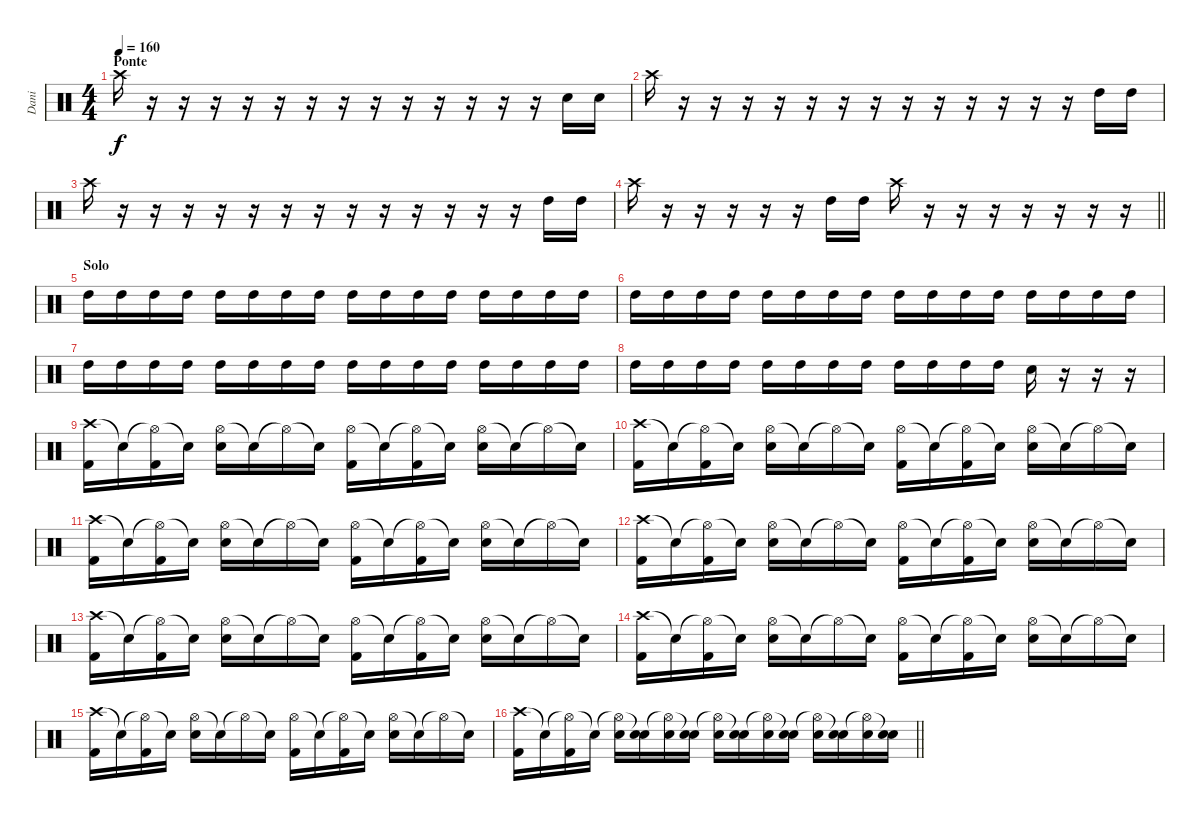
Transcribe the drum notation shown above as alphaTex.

\track ("Dani " "Dani ") {instrument percussion}
\staff {score}
\articulation defaults
\ts (4 4)
\section ("" "Ponte")
\tempo 160
\clef neutral
\ks c "Crash high (hit)".16{dy f}
r.16 r.16 r.16 r.16 r.16 r.16 r.16 r.16 r.16 r.16 r.16 r.16 r.16 "Electric Snare (hit)".16 "Electric Snare (hit)".16 |
"Crash high (hit)".16 r.16 r.16 r.16 r.16 r.16 r.16 r.16 r.16 r.16 r.16 r.16 r.16 r.16 "High Tom (hit)".16 "High Tom (hit)".16 |
"Crash high (hit)".16 r.16 r.16 r.16 r.16 r.16 r.16 r.16 r.16 r.16 r.16 r.16 r.16 r.16 "High Tom (hit)".16 "High Tom (hit)".16 |
\barLineRight lightlight "Crash high (hit)".16
r.16 r.16 r.16 r.16 r.16 "High Tom (hit)".16 "High Tom (hit)".16 "Crash high (hit)".16 r.16 r.16 r.16 r.16 r.16 r.16 r.16 |
\section ("" "Solo")
"High Tom (hit)".16 "High Tom (hit)".16 "High Tom (hit)".16 "High Tom (hit)".16 "High Tom (hit)".16 "High Tom (hit)".16 "High Tom (hit)".16 "High Tom (hit)".16 "High Tom (hit)".16 "High Tom (hit)".16 "High Tom (hit)".16 "High Tom (hit)".16 "High Tom (hit)".16 "High Tom (hit)".16 "High Tom (hit)".16 "High Tom (hit)".16 |
"High Tom (hit)".16 "High Tom (hit)".16 "High Tom (hit)".16 "High Tom (hit)".16 "High Tom (hit)".16 "High Tom (hit)".16 "High Tom (hit)".16 "High Tom (hit)".16 "High Tom (hit)".16 "High Tom (hit)".16 "High Tom (hit)".16 "High Tom (hit)".16 "High Tom (hit)".16 "High Tom (hit)".16 "High Tom (hit)".16 "High Tom (hit)".16 |
"High Tom (hit)".16 "High Tom (hit)".16 "High Tom (hit)".16 "High Tom (hit)".16 "High Tom (hit)".16 "High Tom (hit)".16 "High Tom (hit)".16 "High Tom (hit)".16 "High Tom (hit)".16 "High Tom (hit)".16 "High Tom (hit)".16 "High Tom (hit)".16 "High Tom (hit)".16 "High Tom (hit)".16 "High Tom (hit)".16 "High Tom (hit)".16 |
"High Tom (hit)".16 "High Tom (hit)".16 "High Tom (hit)".16 "High Tom (hit)".16 "High Tom (hit)".16 "High Tom (hit)".16 "High Tom (hit)".16 "High Tom (hit)".16 "High Tom (hit)".16 "High Tom (hit)".16 "High Tom (hit)".16 "High Tom (hit)".16 "Electric Snare (hit)".16 r.16 r.16 r.16 |
("Crash high (hit)" "Kick (hit) 2").16 "Snare (hit)"{t}.16 ("Hi-Hat (open)"{t} "Kick (hit) 2").16 "Snare (hit)"{t}.16 ("Hi-Hat (open)" "Electric Snare (hit)").16 "Snare (hit)"{t}.16 "Hi-Hat (open)"{t}.16 "Snare (hit)"{t}.16 ("Hi-Hat (open)" "Kick (hit) 2").16 "Snare (hit)"{t}.16 ("Hi-Hat (open)"{t} "Kick (hit) 2").16 "Snare (hit)"{t}.16 ("Hi-Hat (open)" "Electric Snare (hit)").16 "Snare (hit)"{t}.16 "Hi-Hat (open)"{t}.16 "Snare (hit)"{t}.16 |
("Crash high (hit)" "Kick (hit) 2").16 "Snare (hit)"{t}.16 ("Hi-Hat (open)"{t} "Kick (hit) 2").16 "Snare (hit)"{t}.16 ("Hi-Hat (open)" "Electric Snare (hit)").16 "Snare (hit)"{t}.16 "Hi-Hat (open)"{t}.16 "Snare (hit)"{t}.16 ("Hi-Hat (open)" "Kick (hit) 2").16 "Snare (hit)"{t}.16 ("Hi-Hat (open)"{t} "Kick (hit) 2").16 "Snare (hit)"{t}.16 ("Hi-Hat (open)" "Electric Snare (hit)").16 "Snare (hit)"{t}.16 "Hi-Hat (open)"{t}.16 "Snare (hit)"{t}.16 |
("Crash high (hit)" "Kick (hit) 2").16 "Snare (hit)"{t}.16 ("Hi-Hat (open)"{t} "Kick (hit) 2").16 "Snare (hit)"{t}.16 ("Hi-Hat (open)" "Electric Snare (hit)").16 "Snare (hit)"{t}.16 "Hi-Hat (open)"{t}.16 "Snare (hit)"{t}.16 ("Hi-Hat (open)" "Kick (hit) 2").16 "Snare (hit)"{t}.16 ("Hi-Hat (open)"{t} "Kick (hit) 2").16 "Snare (hit)"{t}.16 ("Hi-Hat (open)" "Electric Snare (hit)").16 "Snare (hit)"{t}.16 "Hi-Hat (open)"{t}.16 "Snare (hit)"{t}.16 |
("Crash high (hit)" "Kick (hit) 2").16 "Snare (hit)"{t}.16 ("Hi-Hat (open)"{t} "Kick (hit) 2").16 "Snare (hit)"{t}.16 ("Hi-Hat (open)" "Electric Snare (hit)").16 "Snare (hit)"{t}.16 "Hi-Hat (open)"{t}.16 "Snare (hit)"{t}.16 ("Hi-Hat (open)" "Kick (hit) 2").16 "Snare (hit)"{t}.16 ("Hi-Hat (open)"{t} "Kick (hit) 2").16 "Snare (hit)"{t}.16 ("Hi-Hat (open)" "Electric Snare (hit)").16 "Snare (hit)"{t}.16 "Hi-Hat (open)"{t}.16 "Snare (hit)"{t}.16 |
("Crash high (hit)" "Kick (hit) 2").16 "Snare (hit)"{t}.16 ("Hi-Hat (open)"{t} "Kick (hit) 2").16 "Snare (hit)"{t}.16 ("Hi-Hat (open)" "Electric Snare (hit)").16 "Snare (hit)"{t}.16 "Hi-Hat (open)"{t}.16 "Snare (hit)"{t}.16 ("Hi-Hat (open)" "Kick (hit) 2").16 "Snare (hit)"{t}.16 ("Hi-Hat (open)"{t} "Kick (hit) 2").16 "Snare (hit)"{t}.16 ("Hi-Hat (open)" "Electric Snare (hit)").16 "Snare (hit)"{t}.16 "Hi-Hat (open)"{t}.16 "Snare (hit)"{t}.16 |
("Crash high (hit)" "Kick (hit) 2").16 "Snare (hit)"{t}.16 ("Hi-Hat (open)"{t} "Kick (hit) 2").16 "Snare (hit)"{t}.16 ("Hi-Hat (open)" "Electric Snare (hit)").16 "Snare (hit)"{t}.16 "Hi-Hat (open)"{t}.16 "Snare (hit)"{t}.16 ("Hi-Hat (open)" "Kick (hit) 2").16 "Snare (hit)"{t}.16 ("Hi-Hat (open)"{t} "Kick (hit) 2").16 "Snare (hit)"{t}.16 ("Hi-Hat (open)" "Electric Snare (hit)").16 "Snare (hit)"{t}.16 "Hi-Hat (open)"{t}.16 "Snare (hit)"{t}.16 |
("Crash high (hit)" "Kick (hit) 2").16 "Snare (hit)"{t}.16 ("Hi-Hat (open)"{t} "Kick (hit) 2").16 "Snare (hit)"{t}.16 ("Hi-Hat (open)" "Electric Snare (hit)").16 "Snare (hit)"{t}.16 "Hi-Hat (open)"{t}.16 "Snare (hit)"{t}.16 ("Hi-Hat (open)" "Kick (hit) 2").16 "Snare (hit)"{t}.16 ("Hi-Hat (open)"{t} "Kick (hit) 2").16 "Snare (hit)"{t}.16 ("Hi-Hat (open)" "Electric Snare (hit)").16 "Snare (hit)"{t}.16 "Hi-Hat (open)"{t}.16 "Snare (hit)"{t}.16 |
\barLineRight lightlight
("Crash high (hit)" "Kick (hit) 2").16 "Snare (hit)"{t}.16 ("Hi-Hat (open)"{t} "Kick (hit) 2").16 "Snare (hit)"{t}.16 ("Hi-Hat (open)"{t} "Electric Snare (hit)").16 ("Snare (hit)"{t} "Electric Snare (hit)").16 ("Hi-Hat (open)"{t} "Electric Snare (hit)").16 ("Snare (hit)"{t} "Electric Snare (hit)").16 ("Hi-Hat (open)"{t} "Electric Snare (hit)").16 ("Snare (hit)"{t} "Electric Snare (hit)").16 ("Hi-Hat (open)"{t} "Electric Snare (hit)").16 ("Snare (hit)"{t} "Electric Snare (hit)").16 ("Hi-Hat (open)"{t} "Electric Snare (hit)").16 ("Snare (hit)"{t} "Electric Snare (hit)").16 ("Hi-Hat (open)"{t} "Electric Snare (hit)").16 ("Snare (hit)"{t} "Electric Snare (hit)").16
